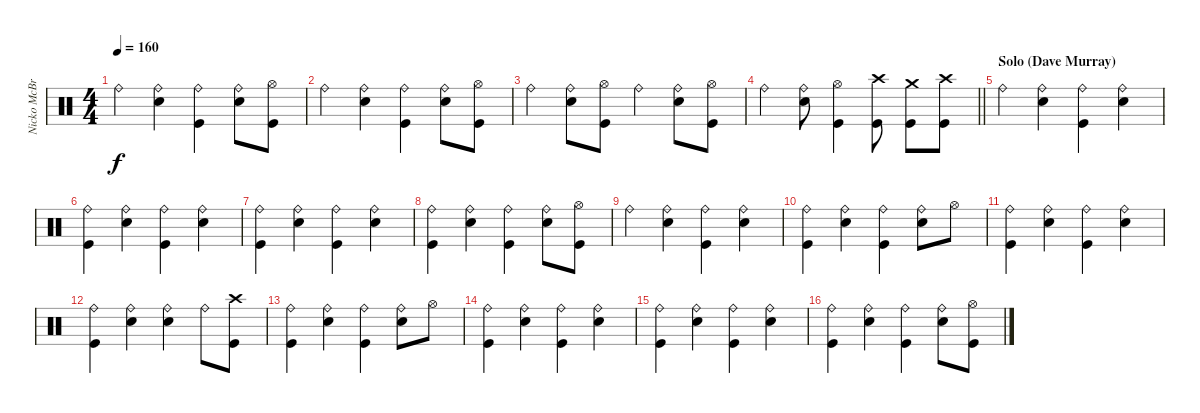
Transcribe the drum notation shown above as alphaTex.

\track ("Nicko McBrain" "Nicko McBr") {instrument percussion}
\staff {score}
\articulation defaults
\ts (4 4)
\tempo 160
\clef neutral
\ks c "Ride (bell)".4{dy f}
("Ride (bell)" "Snare (hit) 2").4 ("Ride (bell)" "Kick (hit)").4 ("Ride (bell)" "Snare (hit) 2").8 ("Hi-Hat (open)" "Kick (hit)").8 |
"Ride (bell)".4 ("Ride (bell)" "Snare (hit) 2").4 ("Ride (bell)" "Kick (hit)").4 ("Ride (bell)" "Snare (hit) 2").8 ("Hi-Hat (open)" "Kick (hit)").8 |
"Ride (bell)".4 ("Ride (bell)" "Snare (hit) 2").8 ("Hi-Hat (open)" "Kick (hit)").8 "Ride (bell)".4 ("Ride (bell)" "Snare (hit) 2").8 ("Hi-Hat (open)" "Kick (hit)").8 |
\barLineRight lightlight "Ride (bell)".4
("Ride (bell)" "Snare (hit) 2").8 ("Hi-Hat (open)" "Kick (hit)").4 ("Crash high (hit)" "Kick (hit)").8 ("Crash medium (hit)" "Kick (hit)").8 ("Crash high (hit)" "Kick (hit)").8 |
\section ("" "Solo (Dave Murray)")
"Ride (bell)".4 ("Ride (bell)" "Snare (hit) 2").4 ("Ride (bell)" "Kick (hit)").4 ("Ride (bell)" "Snare (hit) 2").4 |
("Ride (bell)" "Kick (hit)").4 ("Ride (bell)" "Snare (hit) 2").4 ("Ride (bell)" "Kick (hit)").4 ("Ride (bell)" "Snare (hit) 2").4 |
("Ride (bell)" "Kick (hit)").4 ("Ride (bell)" "Snare (hit) 2").4 ("Ride (bell)" "Kick (hit)").4 ("Ride (bell)" "Snare (hit) 2").4 |
("Ride (bell)" "Kick (hit)").4 ("Ride (bell)" "Snare (hit) 2").4 ("Ride (bell)" "Kick (hit)").4 ("Ride (bell)" "Snare (hit) 2").8 ("Hi-Hat (open)" "Kick (hit)").8 |
"Ride (bell)".4 ("Ride (bell)" "Snare (hit) 2").4 ("Ride (bell)" "Kick (hit)").4 ("Ride (bell)" "Snare (hit) 2").4 |
("Ride (bell)" "Kick (hit)").4 ("Ride (bell)" "Snare (hit) 2").4 ("Ride (bell)" "Kick (hit)").4 ("Ride (bell)" "Snare (hit) 2").8 "Hi-Hat (open)".8 |
("Ride (bell)" "Kick (hit)").4 ("Ride (bell)" "Snare (hit) 2").4 ("Ride (bell)" "Kick (hit)").4 ("Ride (bell)" "Snare (hit) 2").4 |
("Ride (bell)" "Kick (hit)").4 ("Ride (bell)" "Snare (hit) 2").4 ("Ride (bell)" "Snare (hit) 2").4 "Ride (bell)".8 ("Crash high (hit)" "Kick (hit)").8 |
("Ride (bell)" "Kick (hit)").4 ("Ride (bell)" "Snare (hit) 2").4 ("Ride (bell)" "Kick (hit)").4 ("Ride (bell)" "Snare (hit) 2").8 "Hi-Hat (open)".8 |
("Ride (bell)" "Kick (hit)").4 ("Ride (bell)" "Snare (hit) 2").4 ("Ride (bell)" "Kick (hit)").4 ("Ride (bell)" "Snare (hit) 2").4 |
("Ride (bell)" "Kick (hit)").4 ("Ride (bell)" "Snare (hit) 2").4 ("Ride (bell)" "Kick (hit)").4 ("Ride (bell)" "Snare (hit) 2").4 |
("Ride (bell)" "Kick (hit)").4 ("Ride (bell)" "Snare (hit) 2").4 ("Ride (bell)" "Kick (hit)").4 ("Ride (bell)" "Snare (hit) 2").8 ("Hi-Hat (open)" "Kick (hit)").8
